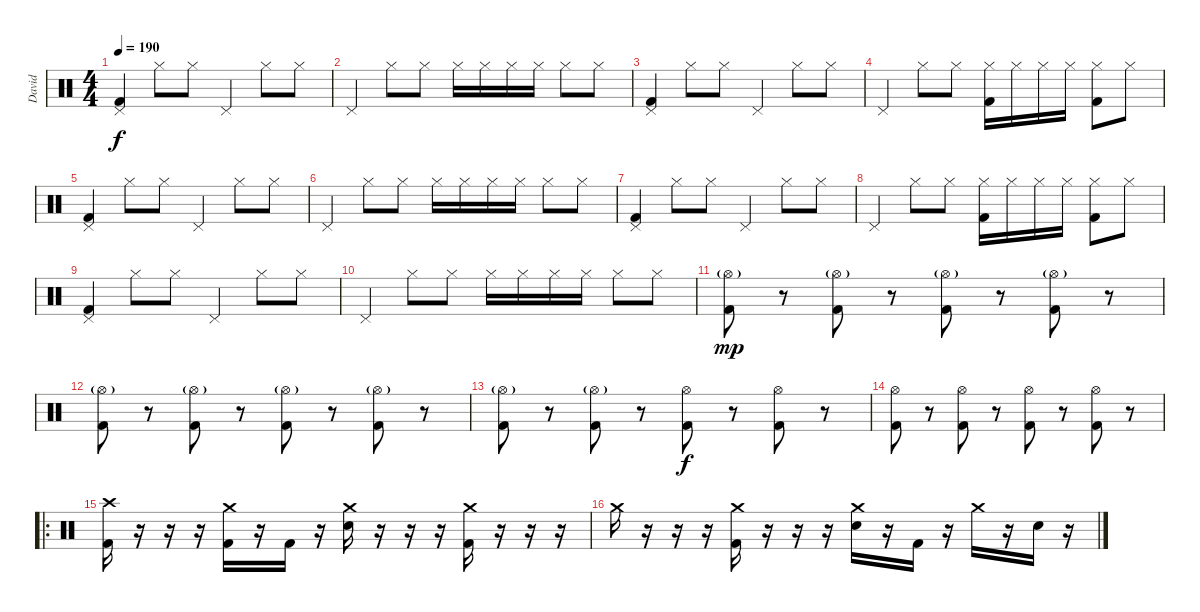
\track ("David" "David") {instrument percussion}
\staff {score}
\articulation defaults
\ts (4 4)
\tempo 190
\clef neutral
\ks c
("Pedal Hi-Hat (hit)" "Kick (hit) 2").4{dy f} "Hi-Hat (closed)".8 "Hi-Hat (closed)".8 "Pedal Hi-Hat (hit)".4 "Hi-Hat (closed)".8 "Hi-Hat (closed)".8 |
"Pedal Hi-Hat (hit)".4 "Hi-Hat (closed)".8 "Hi-Hat (closed)".8 "Hi-Hat (closed)".16 "Hi-Hat (closed)".16 "Hi-Hat (closed)".16 "Hi-Hat (closed)".16 "Hi-Hat (closed)".8 "Hi-Hat (closed)".8 |
("Pedal Hi-Hat (hit)" "Kick (hit) 2").4 "Hi-Hat (closed)".8 "Hi-Hat (closed)".8 "Pedal Hi-Hat (hit)".4 "Hi-Hat (closed)".8 "Hi-Hat (closed)".8 |
"Pedal Hi-Hat (hit)".4 "Hi-Hat (closed)".8 "Hi-Hat (closed)".8 ("Hi-Hat (closed)" "Kick (hit) 2").16 "Hi-Hat (closed)".16 "Hi-Hat (closed)".16 "Hi-Hat (closed)".16 ("Hi-Hat (closed)" "Kick (hit) 2").8 "Hi-Hat (closed)".8 |
("Pedal Hi-Hat (hit)" "Kick (hit) 2").4 "Hi-Hat (closed)".8 "Hi-Hat (closed)".8 "Pedal Hi-Hat (hit)".4 "Hi-Hat (closed)".8 "Hi-Hat (closed)".8 |
"Pedal Hi-Hat (hit)".4 "Hi-Hat (closed)".8 "Hi-Hat (closed)".8 "Hi-Hat (closed)".16 "Hi-Hat (closed)".16 "Hi-Hat (closed)".16 "Hi-Hat (closed)".16 "Hi-Hat (closed)".8 "Hi-Hat (closed)".8 |
("Pedal Hi-Hat (hit)" "Kick (hit) 2").4 "Hi-Hat (closed)".8 "Hi-Hat (closed)".8 "Pedal Hi-Hat (hit)".4 "Hi-Hat (closed)".8 "Hi-Hat (closed)".8 |
"Pedal Hi-Hat (hit)".4 "Hi-Hat (closed)".8 "Hi-Hat (closed)".8 ("Hi-Hat (closed)" "Kick (hit) 2").16 "Hi-Hat (closed)".16 "Hi-Hat (closed)".16 "Hi-Hat (closed)".16 ("Hi-Hat (closed)" "Kick (hit) 2").8 "Hi-Hat (closed)".8 |
("Pedal Hi-Hat (hit)" "Kick (hit) 2").4 "Hi-Hat (closed)".8 "Hi-Hat (closed)".8 "Pedal Hi-Hat (hit)".4 "Hi-Hat (closed)".8 "Hi-Hat (closed)".8 |
"Pedal Hi-Hat (hit)".4 "Hi-Hat (closed)".8 "Hi-Hat (closed)".8 "Hi-Hat (closed)".16 "Hi-Hat (closed)".16 "Hi-Hat (closed)".16 "Hi-Hat (closed)".16 "Hi-Hat (closed)".8 "Hi-Hat (closed)".8 |
("Hi-Hat (open)"{g} "Kick (hit) 2").8{dy mp} r.8 ("Hi-Hat (open)"{g} "Kick (hit) 2").8 r.8 ("Hi-Hat (open)"{g} "Kick (hit) 2").8 r.8 ("Hi-Hat (open)"{g} "Kick (hit) 2").8 r.8 |
("Hi-Hat (open)"{g} "Kick (hit) 2").8 r.8 ("Hi-Hat (open)"{g} "Kick (hit) 2").8 r.8 ("Hi-Hat (open)"{g} "Kick (hit) 2").8 r.8 ("Hi-Hat (open)"{g} "Kick (hit) 2").8 r.8 |
("Hi-Hat (open)"{g} "Kick (hit) 2").8 r.8 ("Hi-Hat (open)"{g} "Kick (hit) 2").8 r.8 ("Hi-Hat (open)" "Kick (hit) 2").8{dy f} r.8 ("Hi-Hat (open)" "Kick (hit) 2").8 r.8 |
("Hi-Hat (open)" "Kick (hit) 2").8 r.8 ("Hi-Hat (open)" "Kick (hit) 2").8 r.8 ("Hi-Hat (open)" "Kick (hit) 2").8 r.8 ("Hi-Hat (open)" "Kick (hit) 2").8 r.8 |
\ro
("Crash high (hit)" "Kick (hit) 2").16 r.16 r.16 r.16 ("Crash medium (hit)" "Kick (hit) 2").16 r.16 "Kick (hit) 2".16 r.16 ("Crash medium (hit)" "Electric Snare (hit)").16 r.16 r.16 r.16 ("Crash medium (hit)" "Kick (hit) 2").16 r.16 r.16 r.16 |
"Crash medium (hit)".16 r.16 r.16 r.16 ("Crash medium (hit)" "Kick (hit) 2").16 r.16 r.16 r.16 ("Crash medium (hit)" "Electric Snare (hit)").16 r.16 "Kick (hit) 2".16 r.16 "Crash medium (hit)".16 r.16 "Electric Snare (hit)".16 r.16
